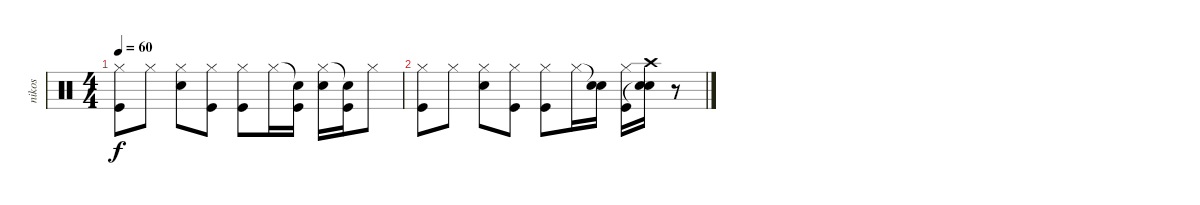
\track ("nikos" "nikos") {instrument percussion}
\staff {score}
\articulation defaults
\ts (4 4)
\tempo 60
\clef neutral
\ks c
("Hi-Hat (closed)" "Kick (hit)").8{dy f} "Hi-Hat (closed)".8 ("Hi-Hat (closed)" "Electric Snare (hit)").8 ("Hi-Hat (closed)" "Kick (hit)").8 ("Hi-Hat (closed)" "Kick (hit)").8 "Hi-Hat (closed)".16 ("Snare (hit)"{t} "Kick (hit)").16 ("Hi-Hat (closed)" "Electric Snare (hit)").16 ("Snare (hit)"{t} "Kick (hit)").16 "Hi-Hat (closed)".8 |
("Hi-Hat (closed)" "Kick (hit)").8 "Hi-Hat (closed)".8 ("Hi-Hat (closed)" "Electric Snare (hit)").8 ("Hi-Hat (closed)" "Kick (hit)").8 ("Hi-Hat (closed)" "Kick (hit)").8 "Hi-Hat (closed)".16 ("Snare (hit)"{t} "Electric Snare (hit)").16 ("Hi-Hat (closed)" "Kick (hit)").16 ("Crash high (hit)" "Snare (hit)"{t} "Electric Snare (hit)").16 r.8
